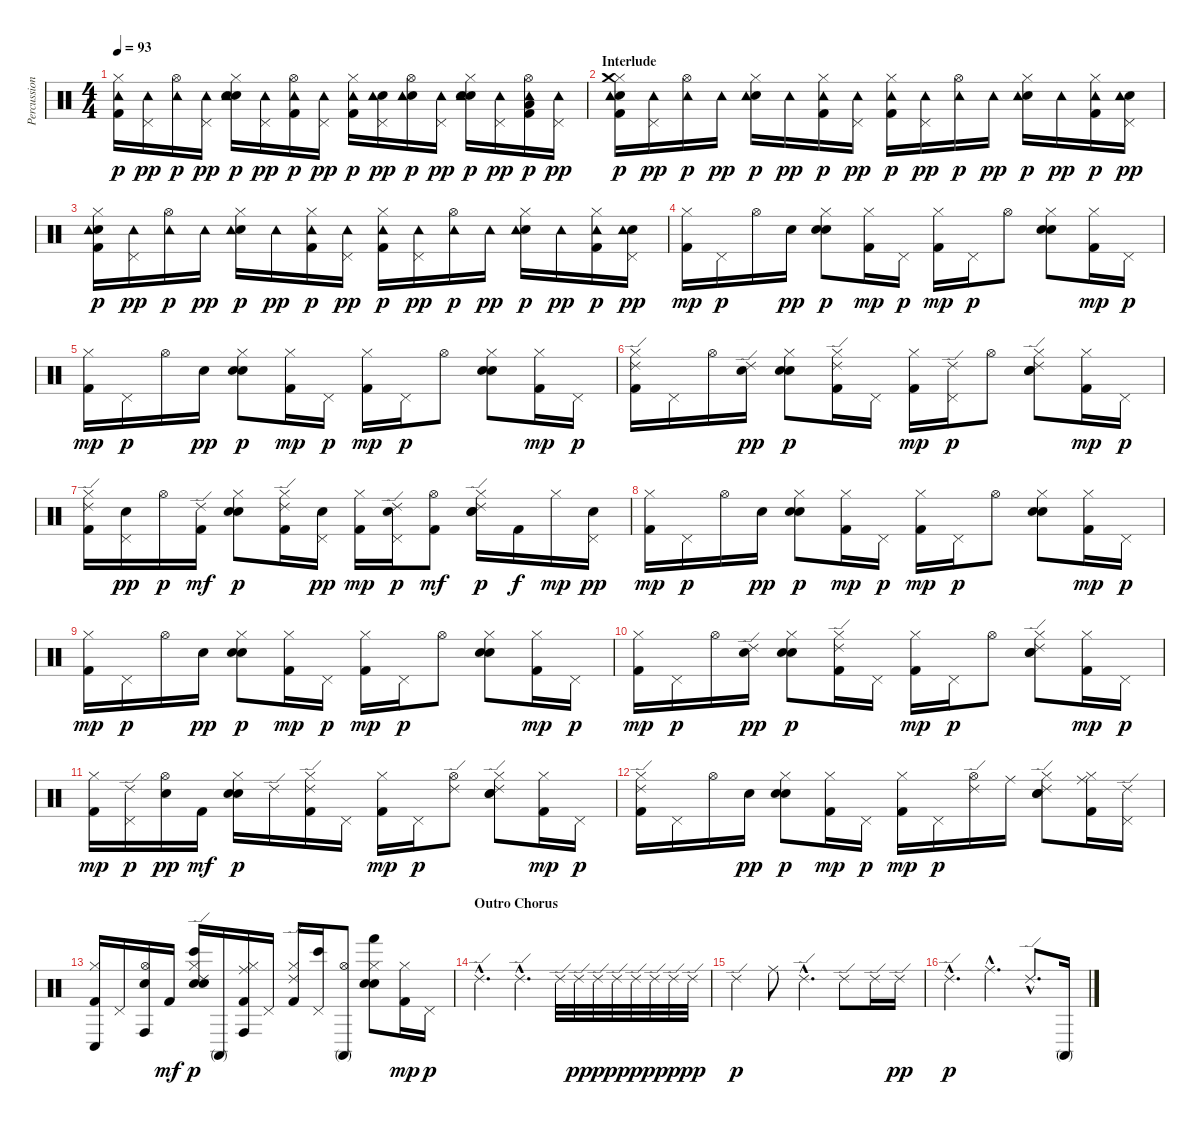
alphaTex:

\track ("Percussions" "Percussion") {instrument percussion}
\staff {score}
\articulation defaults
\ts (4 4)
\tempo 93
\clef neutral
\ks c
("Hi-Hat (closed)" "Kick (hit) 2" "Tambourine (hit)").16{dy p} ("Pedal Hi-Hat (hit)" "Tambourine (hit)").16{dy pp} ("Hi-Hat (open)" "Tambourine (hit)").16{dy p} ("Pedal Hi-Hat (hit)" "Tambourine (hit)").16{dy pp} ("Hi-Hat (closed)" "Electric Snare (hit)" "Hand Clap (hit)" "Tambourine (hit)").16{dy p} ("Pedal Hi-Hat (hit)" "Tambourine (hit)").16{dy pp} ("Hi-Hat (open)" "Kick (hit) 2" "Tambourine (hit)").16{dy p} ("Pedal Hi-Hat (hit)" "Tambourine (hit)").16{dy pp} ("Hi-Hat (closed)" "Kick (hit) 2" "Tambourine (hit)").16{dy p} ("Pedal Hi-Hat (hit)" "Electric Snare (hit)" "Tambourine (hit)").16{dy pp} ("Hi-Hat (open)" "Electric Snare (hit)" "Tambourine (hit)").16{dy p} ("Pedal Hi-Hat (hit)" "Tambourine (hit)").16{dy pp} ("Hi-Hat (closed)" "Electric Snare (hit)" "Hand Clap (hit)" "Tambourine (hit)").16{dy p} ("Pedal Hi-Hat (hit)" "Tambourine (hit)").16{dy pp} ("Hi-Hat (open)" "Low Tom (hit)" "Kick (hit) 2" "Tambourine (hit)").16{dy p} ("Pedal Hi-Hat (hit)" "Tambourine (hit)").16{dy pp} |
\section ("" "Interlude")
("Hi-Hat (closed)" "Crash medium (hit)" "Hand Clap (hit)" "Kick (hit) 2" "Tambourine (hit)").16{dy p} ("Pedal Hi-Hat (hit)" "Tambourine (hit)").16{dy pp} ("Hi-Hat (open)" "Tambourine (hit)").16{dy p} "Tambourine (hit)".16{dy pp} ("Hi-Hat (closed)" "Electric Snare (hit)" "Tambourine (hit)").16{dy p} "Tambourine (hit)".16{dy pp} ("Hi-Hat (closed)" "Kick (hit) 2" "Tambourine (hit)").16{dy p} ("Pedal Hi-Hat (hit)" "Tambourine (hit)").16{dy pp} ("Hi-Hat (closed)" "Kick (hit) 2" "Tambourine (hit)").16{dy p} ("Pedal Hi-Hat (hit)" "Tambourine (hit)").16{dy pp} ("Hi-Hat (open)" "Tambourine (hit)").16{dy p} "Tambourine (hit)".16{dy pp} ("Hi-Hat (closed)" "Electric Snare (hit)" "Tambourine (hit)").16{dy p} "Tambourine (hit)".16{dy pp} ("Hi-Hat (closed)" "Kick (hit) 2" "Tambourine (hit)").16{dy p} ("Pedal Hi-Hat (hit)" "Hand Clap (hit)" "Tambourine (hit)").16{dy pp} |
("Hi-Hat (closed)" "Hand Clap (hit)" "Kick (hit) 2" "Tambourine (hit)").16{dy p} ("Pedal Hi-Hat (hit)" "Tambourine (hit)").16{dy pp} ("Hi-Hat (open)" "Tambourine (hit)").16{dy p} "Tambourine (hit)".16{dy pp} ("Hi-Hat (closed)" "Electric Snare (hit)" "Tambourine (hit)").16{dy p} "Tambourine (hit)".16{dy pp} ("Hi-Hat (closed)" "Kick (hit) 2" "Tambourine (hit)").16{dy p} ("Pedal Hi-Hat (hit)" "Tambourine (hit)").16{dy pp} ("Hi-Hat (closed)" "Kick (hit) 2" "Tambourine (hit)").16{dy p} ("Pedal Hi-Hat (hit)" "Tambourine (hit)").16{dy pp} ("Hi-Hat (open)" "Tambourine (hit)").16{dy p} "Tambourine (hit)".16{dy pp} ("Hi-Hat (closed)" "Electric Snare (hit)" "Tambourine (hit)").16{dy p} "Tambourine (hit)".16{dy pp} ("Hi-Hat (closed)" "Kick (hit) 2" "Tambourine (hit)").16{dy p} ("Pedal Hi-Hat (hit)" "Hand Clap (hit)" "Tambourine (hit)").16{dy pp} |
("Hi-Hat (closed)" "Kick (hit) 2").16{dy mp} "Pedal Hi-Hat (hit)".16{dy p} "Hi-Hat (open)".16 "Snare (hit) 2".16{dy pp} ("Hi-Hat (closed)" "Snare (hit) 2" "Hand Clap (hit)").8{dy p} ("Hi-Hat (closed)" "Kick (hit) 2").16{dy mp} "Pedal Hi-Hat (hit)".16{dy p} ("Hi-Hat (closed)" "Kick (hit) 2").16{dy mp} "Pedal Hi-Hat (hit)".16{dy p} "Hi-Hat (open)".8 ("Hi-Hat (closed)" "Snare (hit) 2" "Hand Clap (hit)").8 ("Hi-Hat (closed)" "Kick (hit) 2").16{dy mp} "Pedal Hi-Hat (hit)".16{dy p} |
("Hi-Hat (closed)" "Kick (hit) 2").16{dy mp} "Pedal Hi-Hat (hit)".16{dy p} "Hi-Hat (open)".16 "Snare (hit) 2".16{dy pp} ("Hi-Hat (closed)" "Snare (hit) 2" "Hand Clap (hit)").8{dy p} ("Hi-Hat (closed)" "Kick (hit) 2").16{dy mp} "Pedal Hi-Hat (hit)".16{dy p} ("Hi-Hat (closed)" "Kick (hit) 2").16{dy mp} "Pedal Hi-Hat (hit)".16{dy p} "Hi-Hat (open)".8 ("Hi-Hat (closed)" "Snare (hit) 2" "Hand Clap (hit)").8 ("Hi-Hat (closed)" "Kick (hit) 2").16{dy mp} "Pedal Hi-Hat (hit)".16{dy p} |
("Hi-Hat (closed)" "Ride (edge) 2" "Kick (hit) 2").16 "Pedal Hi-Hat (hit)".16 "Hi-Hat (open)".16 ("Ride (edge) 2" "Snare (hit) 2").16{dy pp} ("Hi-Hat (closed)" "Snare (hit) 2" "Hand Clap (hit)").8{dy p} ("Hi-Hat (closed)" "Ride (edge) 2" "Kick (hit) 2").16 "Pedal Hi-Hat (hit)".16 ("Hi-Hat (closed)" "Kick (hit) 2").16{dy mp} ("Pedal Hi-Hat (hit)" "Ride (edge) 2").16{dy p} "Hi-Hat (open)".8 ("Hi-Hat (closed)" "Snare (hit) 2" "Hand Clap (hit)" "Ride (edge) 2").8 ("Hi-Hat (closed)" "Kick (hit) 2").16{dy mp} "Pedal Hi-Hat (hit)".16{dy p} |
("Hi-Hat (closed)" "Ride (edge) 2" "Kick (hit) 2").16 ("Pedal Hi-Hat (hit)" "Snare (hit) 2").16{dy pp} "Hi-Hat (open)".16{dy p} ("Ride (edge) 2" "Kick (hit) 2").16{dy mf} ("Hi-Hat (closed)" "Snare (hit) 2" "Hand Clap (hit)").8{dy p} ("Hi-Hat (closed)" "Ride (edge) 2" "Kick (hit) 2").16 ("Pedal Hi-Hat (hit)" "Snare (hit) 2").16{dy pp} ("Hi-Hat (closed)" "Kick (hit) 2").16{dy mp} ("Pedal Hi-Hat (hit)" "Snare (hit) 2" "Ride (edge) 2").16{dy p} ("Hi-Hat (open)" "Kick (hit) 2").8{dy mf} ("Hi-Hat (closed)" "Snare (hit) 2" "Hand Clap (hit)" "Ride (edge) 2").16{dy p} "Kick (hit) 2".16{dy f} "Hi-Hat (closed)".16{dy mp} ("Pedal Hi-Hat (hit)" "Snare (hit) 2").16{dy pp} |
("Hi-Hat (closed)" "Kick (hit) 2").16{dy mp} "Pedal Hi-Hat (hit)".16{dy p} "Hi-Hat (open)".16 "Snare (hit) 2".16{dy pp} ("Hi-Hat (closed)" "Snare (hit) 2" "Hand Clap (hit)").8{dy p} ("Hi-Hat (closed)" "Kick (hit) 2").16{dy mp} "Pedal Hi-Hat (hit)".16{dy p} ("Hi-Hat (closed)" "Kick (hit) 2").16{dy mp} "Pedal Hi-Hat (hit)".16{dy p} "Hi-Hat (open)".8 ("Hi-Hat (closed)" "Snare (hit) 2" "Hand Clap (hit)").8 ("Hi-Hat (closed)" "Kick (hit) 2").16{dy mp} "Pedal Hi-Hat (hit)".16{dy p} |
("Hi-Hat (closed)" "Kick (hit) 2").16{dy mp} "Pedal Hi-Hat (hit)".16{dy p} "Hi-Hat (open)".16 "Snare (hit) 2".16{dy pp} ("Hi-Hat (closed)" "Snare (hit) 2" "Hand Clap (hit)").8{dy p} ("Hi-Hat (closed)" "Kick (hit) 2").16{dy mp} "Pedal Hi-Hat (hit)".16{dy p} ("Hi-Hat (closed)" "Kick (hit) 2").16{dy mp} "Pedal Hi-Hat (hit)".16{dy p} "Hi-Hat (open)".8 ("Hi-Hat (closed)" "Snare (hit) 2" "Hand Clap (hit)").8 ("Hi-Hat (closed)" "Kick (hit) 2").16{dy mp} "Pedal Hi-Hat (hit)".16{dy p} |
("Hi-Hat (closed)" "Kick (hit) 2").16{dy mp} "Pedal Hi-Hat (hit)".16{dy p} "Hi-Hat (open)".16 ("Ride (edge) 2" "Snare (hit) 2").16{dy pp} ("Hi-Hat (closed)" "Snare (hit) 2" "Hand Clap (hit)").8{dy p} ("Hi-Hat (closed)" "Ride (edge) 2" "Kick (hit) 2").16 "Pedal Hi-Hat (hit)".16 ("Hi-Hat (closed)" "Kick (hit) 2").16{dy mp} "Pedal Hi-Hat (hit)".16{dy p} "Hi-Hat (open)".8 ("Hi-Hat (closed)" "Snare (hit) 2" "Hand Clap (hit)" "Ride (edge) 2").8 ("Hi-Hat (closed)" "Kick (hit) 2").16{dy mp} "Pedal Hi-Hat (hit)".16{dy p} |
("Hi-Hat (closed)" "Kick (hit) 2").16{dy mp} ("Pedal Hi-Hat (hit)" "Ride (edge) 2").16{dy p} ("Hi-Hat (open)" "Snare (hit) 2").16{dy pp} "Kick (hit) 2".16{dy mf} ("Hi-Hat (closed)" "Snare (hit) 2" "Hand Clap (hit)").16{dy p} "Ride (edge) 2".16 ("Hi-Hat (closed)" "Ride (edge) 2" "Kick (hit) 2").16 "Pedal Hi-Hat (hit)".16 ("Hi-Hat (closed)" "Kick (hit) 2").16{dy mp} "Pedal Hi-Hat (hit)".16{dy p} ("Hi-Hat (open)" "Ride (edge) 2").8 ("Hi-Hat (closed)" "Snare (hit) 2" "Hand Clap (hit)" "Ride (edge) 2").8 ("Hi-Hat (closed)" "Kick (hit) 2").16{dy mp} "Pedal Hi-Hat (hit)".16{dy p} |
("Hi-Hat (closed)" "Ride (edge) 2" "Kick (hit) 2").16 "Pedal Hi-Hat (hit)".16 "Hi-Hat (open)".16 "Snare (hit) 2".16{dy pp} ("Hi-Hat (closed)" "Snare (hit) 2" "Hand Clap (hit)").8{dy p} ("Hi-Hat (closed)" "Kick (hit) 2").16{dy mp} "Pedal Hi-Hat (hit)".16{dy p} ("Hi-Hat (closed)" "Kick (hit) 2").16{dy mp} "Pedal Hi-Hat (hit)".16{dy p} ("Hi-Hat (open)" "Ride (edge) 2").16 "Ride (middle)".16 ("Hi-Hat (closed)" "Snare (hit) 2" "Hand Clap (hit)" "Ride (edge) 2").8 ("Hi-Hat (closed)" "Ride (middle)" "Kick (hit) 2").16 ("Pedal Hi-Hat (hit)" "Ride (edge) 2").16 |
("Hi-Hat (closed)" "Kick (hit) 2" "Conga low (hit)").16 "Pedal Hi-Hat (hit)".16 ("Hi-Hat (open)" "Snare (hit) 2" "Conga high (hit)").16 "Kick (hit) 2".16{dy mf} ("Hi-Hat (closed)" "Snare (hit) 2" "Hand Clap (hit)" "Ride (edge) 2" "Bongo High (hit)").16{dy p} "Conga high (mute)".16 ("Hi-Hat (closed)" "Ride (middle)" "Kick (hit) 2" "Conga high (hit)").16 "Pedal Hi-Hat (hit)".16 ("Hi-Hat (closed)" "Ride (edge) 2" "Kick (hit) 2").16 ("Pedal Hi-Hat (hit)" "Bongo High (hit)").16 ("Hi-Hat (open)" "Conga high (mute)").8 ("Hi-Hat (closed)" "Snare (hit) 2" "Hand Clap (hit)" "Hand (hit)").8 ("Hi-Hat (closed)" "Kick (hit) 2").16{dy mp} "Pedal Hi-Hat (hit)".16{dy p} |
\section ("" "Outro Chorus")
"Ride (edge) 2"{hac}.4{d} "Ride (edge) 2"{hac}.4{d} "Ride (edge) 2".32 "Ride (edge) 2".32{dy pp} "Ride (edge) 2".32{dy p} "Ride (edge) 2".32{dy pp} "Ride (edge) 2".32{dy p} "Ride (edge) 2".32{dy pp} "Ride (edge) 2".32{dy p} "Ride (edge) 2".32{dy pp} |
"Ride (edge) 2".4{dy p} "Ride (middle)".8 "Ride (edge) 2"{hac}.4{d} "Ride (edge) 2".8 "Ride (edge) 2".16 "Ride (edge) 2".16{dy pp} |
"Ride (edge) 2"{hac}.4{d dy p} "Ride (middle)"{hac}.4{d} "Ride (edge) 2"{hac}.8{d} "Conga high (mute)".16
